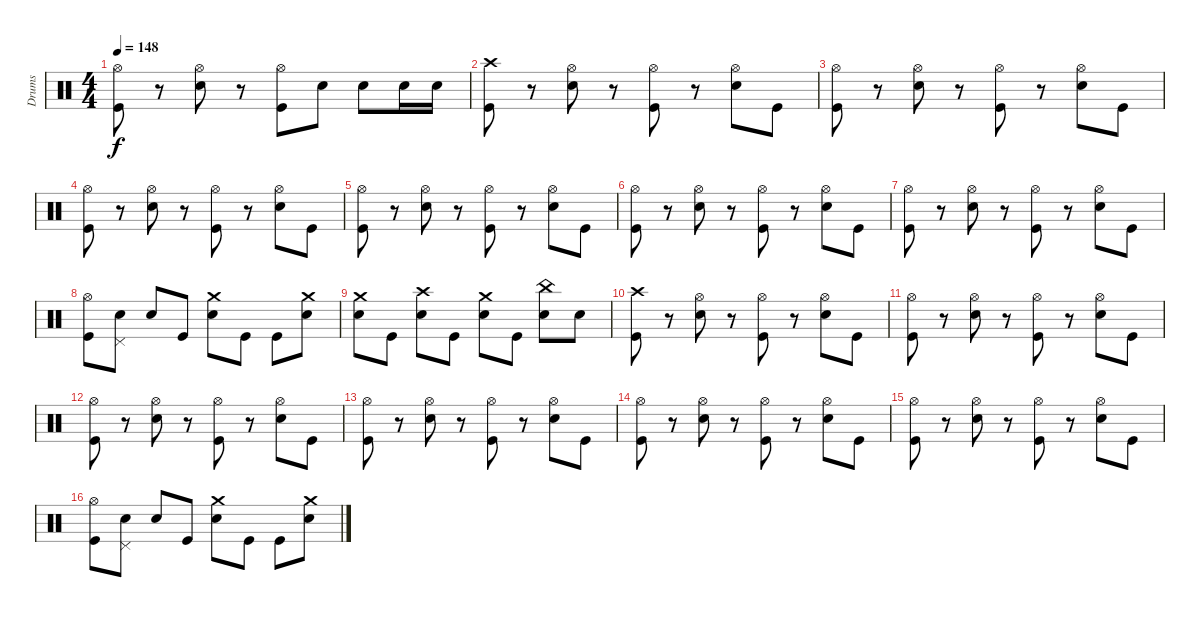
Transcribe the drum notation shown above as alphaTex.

\track ("Drums" "Drums") {instrument percussion}
\staff {score}
\articulation defaults
\ts (4 4)
\tempo 148
\clef neutral
\ks c
("Hi-Hat (open)" "Kick (hit)").8{dy f} r.8 ("Hi-Hat (open)" "Electric Snare (hit)").8 r.8 ("Hi-Hat (open)" "Kick (hit)").8 "Electric Snare (hit)".8 "Electric Snare (hit)".8 "Electric Snare (hit)".16 "Electric Snare (hit)".16 |
("Crash high (hit)" "Kick (hit)").8 r.8 ("Hi-Hat (open)" "Electric Snare (hit)").8 r.8 ("Hi-Hat (open)" "Kick (hit)").8 r.8 ("Hi-Hat (open)" "Electric Snare (hit)").8 "Kick (hit)".8 |
("Hi-Hat (open)" "Kick (hit)").8 r.8 ("Hi-Hat (open)" "Electric Snare (hit)").8 r.8 ("Hi-Hat (open)" "Kick (hit)").8 r.8 ("Hi-Hat (open)" "Electric Snare (hit)").8 "Kick (hit)".8 |
("Hi-Hat (open)" "Kick (hit)").8 r.8 ("Hi-Hat (open)" "Electric Snare (hit)").8 r.8 ("Hi-Hat (open)" "Kick (hit)").8 r.8 ("Hi-Hat (open)" "Electric Snare (hit)").8 "Kick (hit)".8 |
("Hi-Hat (open)" "Kick (hit)").8 r.8 ("Hi-Hat (open)" "Electric Snare (hit)").8 r.8 ("Hi-Hat (open)" "Kick (hit)").8 r.8 ("Hi-Hat (open)" "Electric Snare (hit)").8 "Kick (hit)".8 |
("Hi-Hat (open)" "Kick (hit)").8 r.8 ("Hi-Hat (open)" "Electric Snare (hit)").8 r.8 ("Hi-Hat (open)" "Kick (hit)").8 r.8 ("Hi-Hat (open)" "Electric Snare (hit)").8 "Kick (hit)".8 |
("Hi-Hat (open)" "Kick (hit)").8 r.8 ("Hi-Hat (open)" "Electric Snare (hit)").8 r.8 ("Hi-Hat (open)" "Kick (hit)").8 r.8 ("Hi-Hat (open)" "Electric Snare (hit)").8 "Kick (hit)".8 |
("Hi-Hat (open)" "Kick (hit)").8 ("Pedal Hi-Hat (hit)" "Electric Snare (hit)").8 "Electric Snare (hit)".8 "Kick (hit)".8 ("Crash medium (hit)" "Electric Snare (hit)").8 "Kick (hit)".8 "Kick (hit)".8 ("Crash medium (hit)" "Electric Snare (hit)").8 |
("Crash medium (hit)" "Electric Snare (hit)").8 "Kick (hit)".8 ("Crash high (hit)" "Electric Snare (hit)").8 "Kick (hit)".8 ("Crash medium (hit)" "Electric Snare (hit)").8 "Kick (hit)".8 ("China (hit)" "Electric Snare (hit)").8 "Electric Snare (hit)".8 |
("Crash high (hit)" "Kick (hit)").8 r.8 ("Hi-Hat (open)" "Electric Snare (hit)").8 r.8 ("Hi-Hat (open)" "Kick (hit)").8 r.8 ("Hi-Hat (open)" "Electric Snare (hit)").8 "Kick (hit)".8 |
("Hi-Hat (open)" "Kick (hit)").8 r.8 ("Hi-Hat (open)" "Electric Snare (hit)").8 r.8 ("Hi-Hat (open)" "Kick (hit)").8 r.8 ("Hi-Hat (open)" "Electric Snare (hit)").8 "Kick (hit)".8 |
("Hi-Hat (open)" "Kick (hit)").8 r.8 ("Hi-Hat (open)" "Electric Snare (hit)").8 r.8 ("Hi-Hat (open)" "Kick (hit)").8 r.8 ("Hi-Hat (open)" "Electric Snare (hit)").8 "Kick (hit)".8 |
("Hi-Hat (open)" "Kick (hit)").8 r.8 ("Hi-Hat (open)" "Electric Snare (hit)").8 r.8 ("Hi-Hat (open)" "Kick (hit)").8 r.8 ("Hi-Hat (open)" "Electric Snare (hit)").8 "Kick (hit)".8 |
("Hi-Hat (open)" "Kick (hit)").8 r.8 ("Hi-Hat (open)" "Electric Snare (hit)").8 r.8 ("Hi-Hat (open)" "Kick (hit)").8 r.8 ("Hi-Hat (open)" "Electric Snare (hit)").8 "Kick (hit)".8 |
("Hi-Hat (open)" "Kick (hit)").8 r.8 ("Hi-Hat (open)" "Electric Snare (hit)").8 r.8 ("Hi-Hat (open)" "Kick (hit)").8 r.8 ("Hi-Hat (open)" "Electric Snare (hit)").8 "Kick (hit)".8 |
("Hi-Hat (open)" "Kick (hit)").8 ("Pedal Hi-Hat (hit)" "Electric Snare (hit)").8 "Electric Snare (hit)".8 "Kick (hit)".8 ("Crash medium (hit)" "Electric Snare (hit)").8 "Kick (hit)".8 "Kick (hit)".8 ("Crash medium (hit)" "Electric Snare (hit)").8
